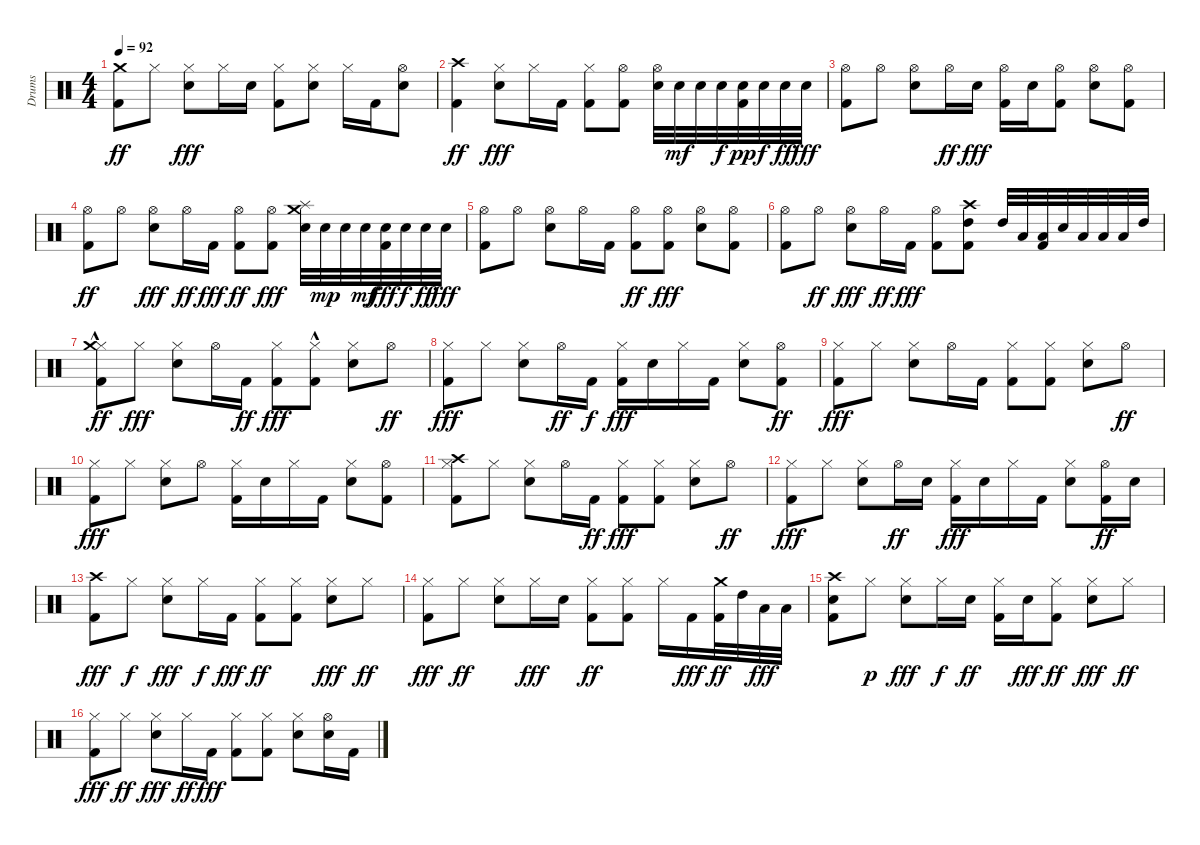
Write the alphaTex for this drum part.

\track ("Drums" "Drums") {instrument percussion}
\staff {score}
\articulation defaults
\ts (4 4)
\tempo 92
\clef neutral
\ks c
("Kick (hit) 2" "Crash medium (hit)").8{dy ff} "Hi-Hat (closed)".8 ("Snare (hit) 2" "Hi-Hat (closed)").8{dy fff} "Hi-Hat (closed)".16 "Snare (hit) 2".16 ("Kick (hit) 2" "Hi-Hat (closed)").8 ("Snare (hit) 2" "Hi-Hat (closed)").8 "Hi-Hat (closed)".16 "Kick (hit) 2".16 ("Snare (hit) 2" "Hi-Hat (open)").8 |
("Kick (hit) 2" "Crash high (hit)").4{dy ff} ("Snare (hit) 2" "Hi-Hat (closed)").8{dy fff} "Hi-Hat (closed)".16 "Kick (hit) 2".16 ("Kick (hit) 2" "Hi-Hat (closed)").8 ("Kick (hit) 2" "Hi-Hat (open)").8 ("Snare (hit) 2" "Hi-Hat (open)").32 "Snare (hit) 2".32{dy mf} "Snare (hit) 2".32 "Snare (hit) 2".32{dy f} ("Kick (hit) 2" "Snare (hit) 2").32{dy pp} "Snare (hit) 2".32{dy f} "Snare (hit) 2".32{dy ff} "Snare (hit) 2".32{dy fff} |
("Kick (hit) 2" "Hi-Hat (open)").8 "Hi-Hat (open)".8 ("Snare (hit) 2" "Hi-Hat (open)").8 "Hi-Hat (open)".16{dy ff} "Snare (hit) 2".16{dy fff} ("Kick (hit) 2" "Hi-Hat (open)").16 "Snare (hit) 2".16 ("Kick (hit) 2" "Hi-Hat (open)").8 ("Snare (hit) 2" "Hi-Hat (open)").8 ("Kick (hit) 2" "Hi-Hat (open)").8 |
("Kick (hit) 2" "Hi-Hat (open)").8{dy ff} "Hi-Hat (open)".8 ("Snare (hit) 2" "Hi-Hat (open)").8{dy fff} "Hi-Hat (open)".16{dy ff} "Kick (hit) 2".16{dy fff} ("Kick (hit) 2" "Hi-Hat (open)").8{dy ff} ("Kick (hit) 2" "Hi-Hat (open)").8{dy fff} ("Snare (hit) 2" "Splash (hit)" "Crash medium (hit)").32 "Snare (hit) 2".32{dy mp} "Snare (hit) 2".32 "Snare (hit) 2".32{dy mf} ("Kick (hit) 2" "Snare (hit) 2").32{dy fff} "Snare (hit) 2".32{dy f} "Snare (hit) 2".32{dy ff} "Snare (hit) 2".32{dy fff} |
("Kick (hit) 2" "Hi-Hat (open)").8 "Hi-Hat (open)".8 ("Snare (hit) 2" "Hi-Hat (open)").8 "Hi-Hat (open)".16 "Kick (hit) 2".16 ("Kick (hit) 2" "Hi-Hat (open)").8{dy ff} ("Kick (hit) 2" "Hi-Hat (open)").8{dy fff} ("Snare (hit) 2" "Hi-Hat (open)").8 ("Kick (hit) 2" "Hi-Hat (open)").8 |
("Kick (hit) 2" "Hi-Hat (open)").8 "Hi-Hat (open)".8{dy ff} ("Snare (hit) 2" "Hi-Hat (open)").8{dy fff} "Hi-Hat (open)".16{dy ff} "Kick (hit) 2".16{dy fff} ("Kick (hit) 2" "Hi-Hat (open)").8 ("Kick (hit) 2" "High Tom (hit)" "Crash high (hit)").8 "High Tom (hit)".32 "Low Tom (hit)".32 ("Kick (hit) 2" "Low Floor Tom (hit)").32 "Snare (hit) 2".32 "Low Floor Tom (hit)".32 "Low Tom (hit)".32 "Low Floor Tom (hit)".32 "High Tom (hit)".32 |
("Kick (hit) 2" "Hi-Hat (closed)" "Crash medium (hit)"{hac}).8{dy ff} "Hi-Hat (closed)".8{dy fff} ("Snare (hit) 2" "Hi-Hat (closed)").8 "Hi-Hat (open)".16 "Kick (hit) 2".16{dy ff} ("Kick (hit) 2" "Hi-Hat (closed)").8{dy fff} ("Kick (hit) 2"{hac} "Hi-Hat (closed)").8 ("Snare (hit) 2" "Hi-Hat (closed)").8 "Hi-Hat (open)".8{dy ff} |
("Kick (hit) 2" "Hi-Hat (closed)").8{dy fff} "Hi-Hat (closed)".8 ("Snare (hit) 2" "Hi-Hat (closed)").8 "Hi-Hat (open)".16{dy ff} "Kick (hit) 2".16{dy f} ("Kick (hit) 2" "Hi-Hat (closed)").16{dy fff} "Snare (hit) 2".16 "Hi-Hat (closed)".16 "Kick (hit) 2".16 ("Snare (hit) 2" "Hi-Hat (closed)").8 ("Kick (hit) 2" "Hi-Hat (open)").8{dy ff} |
("Kick (hit) 2" "Hi-Hat (closed)").8{dy fff} "Hi-Hat (closed)".8 ("Snare (hit) 2" "Hi-Hat (closed)").8 "Hi-Hat (open)".16 "Kick (hit) 2".16 ("Kick (hit) 2" "Hi-Hat (closed)").8 ("Kick (hit) 2" "Hi-Hat (closed)").8 ("Snare (hit) 2" "Hi-Hat (closed)").8 "Hi-Hat (open)".8{dy ff} |
("Kick (hit) 2" "Hi-Hat (closed)").8{dy fff} "Hi-Hat (closed)".8 ("Snare (hit) 2" "Hi-Hat (closed)").8 "Hi-Hat (open)".8 ("Kick (hit) 2" "Hi-Hat (closed)").16 "Snare (hit) 2".16 "Hi-Hat (closed)".16 "Kick (hit) 2".16 ("Snare (hit) 2" "Hi-Hat (closed)").8 ("Kick (hit) 2" "Hi-Hat (open)").8 |
("Kick (hit) 2" "Hi-Hat (closed)" "Crash high (hit)").8 "Hi-Hat (closed)".8 ("Snare (hit) 2" "Hi-Hat (closed)").8 "Hi-Hat (open)".16 "Kick (hit) 2".16{dy ff} ("Kick (hit) 2" "Hi-Hat (closed)").8{dy fff} ("Kick (hit) 2" "Hi-Hat (closed)").8 ("Snare (hit) 2" "Hi-Hat (closed)").8 "Hi-Hat (open)".8{dy ff} |
("Kick (hit) 2" "Hi-Hat (closed)").8{dy fff} "Hi-Hat (closed)".8 ("Snare (hit) 2" "Hi-Hat (closed)").8 "Hi-Hat (open)".16{dy ff} "Snare (hit) 2".16 ("Kick (hit) 2" "Hi-Hat (closed)").16{dy fff} "Snare (hit) 2".16 "Hi-Hat (closed)".16 "Kick (hit) 2".16 ("Snare (hit) 2" "Hi-Hat (closed)").8 ("Kick (hit) 2" "Hi-Hat (open)").16{dy ff} "Snare (hit) 2".16 |
("Kick (hit) 2" "Crash high (hit)").8{dy fff} "Hi-Hat (closed)".8{dy f} ("Snare (hit) 2" "Hi-Hat (closed)").8{dy fff} "Hi-Hat (closed)".16{dy f} "Kick (hit) 2".16{dy fff} ("Kick (hit) 2" "Hi-Hat (closed)").8{dy ff} ("Kick (hit) 2" "Hi-Hat (closed)").8 ("Snare (hit) 2" "Hi-Hat (closed)").8{dy fff} "Hi-Hat (closed)".8{dy ff} |
("Kick (hit) 2" "Hi-Hat (closed)").8{dy fff} "Hi-Hat (closed)".8{dy ff} ("Snare (hit) 2" "Hi-Hat (closed)").8 "Hi-Hat (closed)".16{dy fff} "Snare (hit) 2".16 ("Kick (hit) 2" "Hi-Hat (closed)").8{dy ff} ("Kick (hit) 2" "Hi-Hat (closed)").8 "Hi-Hat (closed)".16 "Kick (hit) 2".16{dy fff} ("Kick (hit) 2" "Crash medium (hit)").32{dy ff} "High Tom (hit)".32 "Low Tom (hit)".32{dy fff} "Low Floor Tom (hit)".32 |
("Kick (hit) 2" "Electric Snare (hit)" "Crash high (hit)").8 "Hi-Hat (closed)".8{dy p} ("Snare (hit) 2" "Hi-Hat (closed)").8{dy fff} "Hi-Hat (closed)".16{dy f} "Snare (hit) 2".16{dy ff} ("Kick (hit) 2" "Hi-Hat (closed)").16 "Snare (hit) 2".16{dy fff} ("Kick (hit) 2" "Hi-Hat (closed)").8{dy ff} ("Snare (hit) 2" "Hi-Hat (closed)").8{dy fff} "Hi-Hat (closed)".8{dy ff} |
("Kick (hit) 2" "Hi-Hat (closed)").8{dy fff} "Hi-Hat (closed)".8{dy ff} ("Snare (hit) 2" "Hi-Hat (closed)").8{dy fff} "Hi-Hat (closed)".16{dy ff} "Kick (hit) 2".16{dy fff} ("Kick (hit) 2" "Hi-Hat (closed)").8 ("Kick (hit) 2" "Hi-Hat (closed)").8 ("Snare (hit) 2" "Hi-Hat (closed)").8 ("Snare (hit) 2" "Hi-Hat (open)").16 "Kick (hit) 2".16
